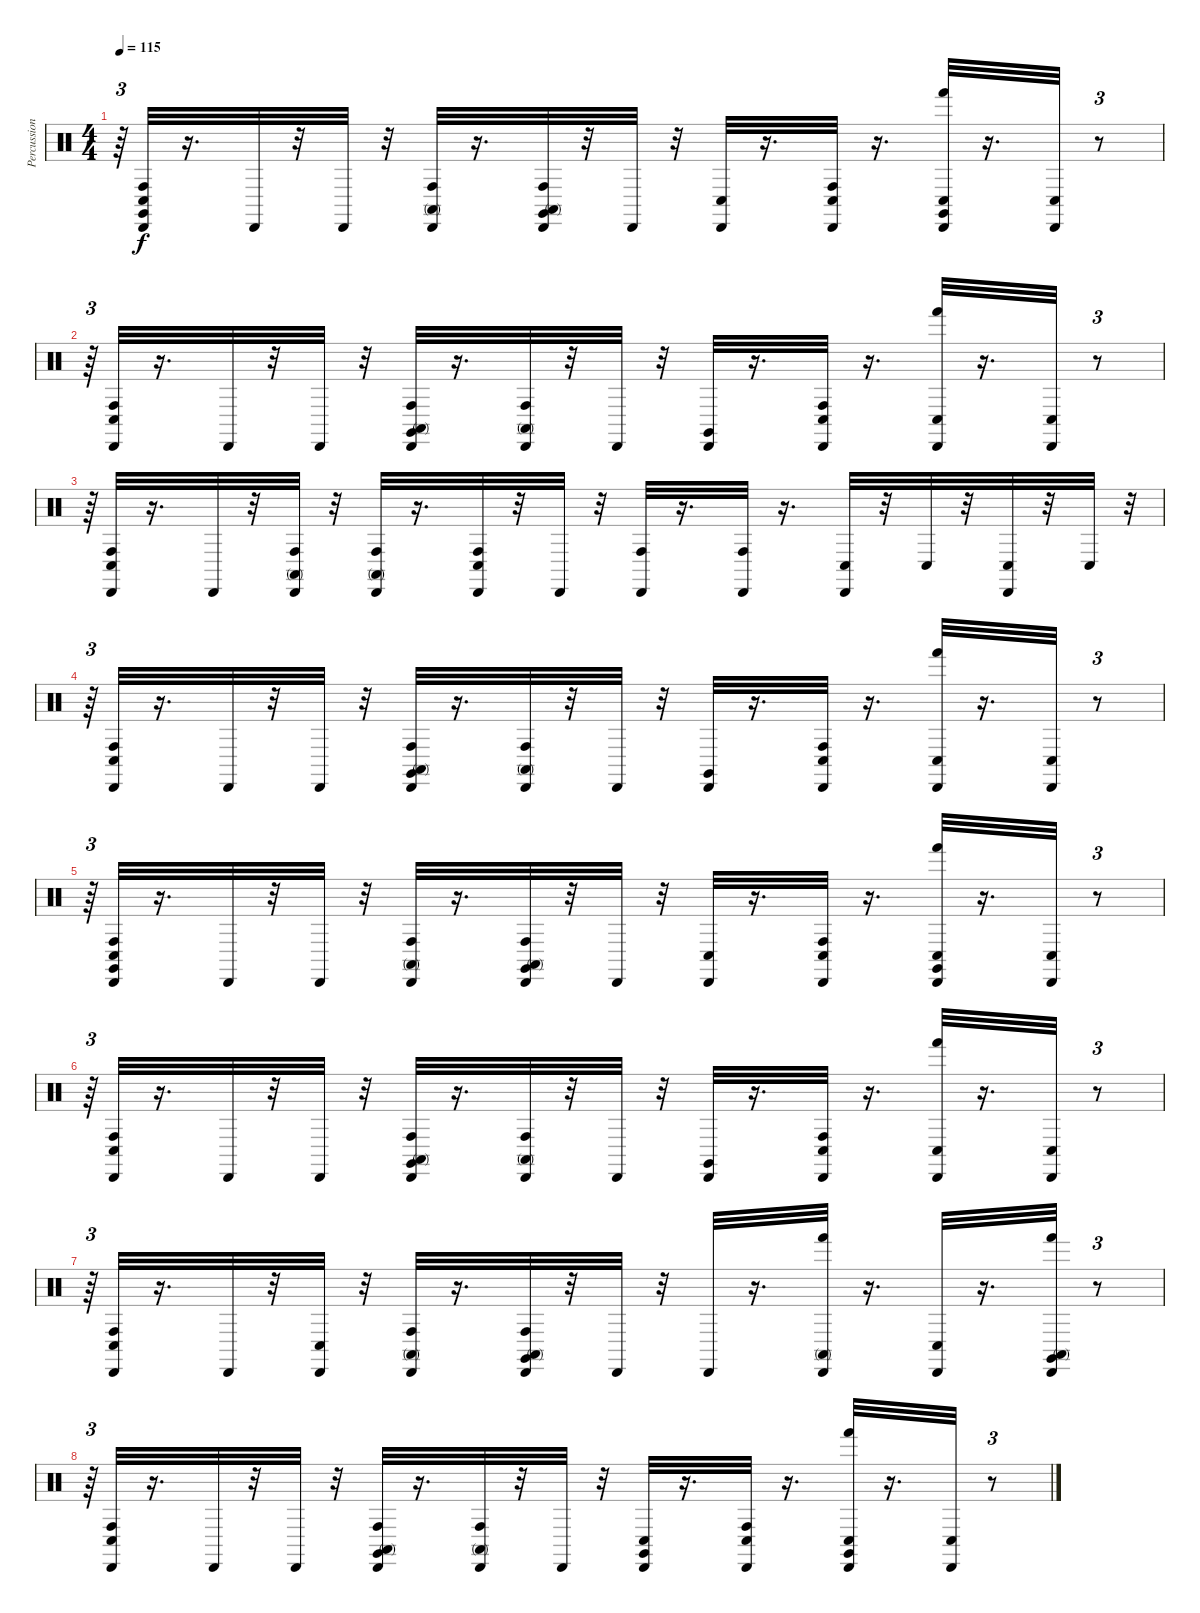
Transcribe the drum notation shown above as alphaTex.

\track ("Percussion" "Percussion") {instrument percussion}
\staff {score}
\articulation defaults
\ts (4 4)
\tempo 115
\clef neutral
\ks c
r.64{tu (3 2) dy f} ("Conga low (hit)" "Claves (hit)" "Cabasa (hit)" "Conga high (hit)").32 r.16{d} "Cabasa (hit)".32 r.32 "Cabasa (hit)".32 r.32 ("Conga high (mute)" "Cabasa (hit)" "Conga high (hit)").32 r.16{d} ("Conga high (hit)" "Claves (hit)" "Cabasa (hit)" "Conga high (mute)").32 r.32 "Cabasa (hit)".32 r.32 ("Conga low (hit)" "Cabasa (hit)").32 r.16{d} ("Cabasa (hit)" "Conga low (hit)" "Conga high (hit)").32 r.16{d} ("Conga low (hit)" "Hand (hit)" "Claves (hit)" "Cabasa (hit)").32 r.16{d} ("Cabasa (hit)" "Conga low (hit)").32 r.8{tu (3 2)} |
r.64{tu (3 2)} ("Conga low (hit)" "Conga high (hit)" "Cabasa (hit)").32 r.16{d} "Cabasa (hit)".32 r.32 "Cabasa (hit)".32 r.32 ("Cabasa (hit)" "Conga high (hit)" "Conga high (mute)" "Claves (hit)").32 r.16{d} ("Conga high (hit)" "Cabasa (hit)" "Conga high (mute)").32 r.32 "Cabasa (hit)".32 r.32 ("Claves (hit)" "Cabasa (hit)").32 r.16{d} ("Conga high (hit)" "Cabasa (hit)" "Conga low (hit)").32 r.16{d} ("Cabasa (hit)" "Hand (hit)" "Conga low (hit)").32 r.16{d} ("Conga low (hit)" "Cabasa (hit)").32 r.8{tu (3 2)} |
r.64{tu (3 2)} ("Conga high (hit)" "Conga low (hit)" "Cabasa (hit)").32 r.16{d} "Cabasa (hit)".32 r.32 ("Conga high (hit)" "Conga high (mute)" "Cabasa (hit)").32 r.32 ("Cabasa (hit)" "Conga high (mute)" "Conga high (hit)").32 r.16{d} ("Conga high (hit)" "Conga low (hit)" "Cabasa (hit)").32 r.32 "Cabasa (hit)".32 r.32 ("Conga high (hit)" "Cabasa (hit)").32 r.16{d} ("Cabasa (hit)" "Conga high (hit)").32 r.16{d} ("Cabasa (hit)" "Conga low (hit)").32 r.32 "Conga low (hit)".32 r.32 ("Cabasa (hit)" "Conga low (hit)").32 r.32 "Conga low (hit)".32 r.32{tu (3 2)} |
r.64{tu (3 2)} ("Conga high (hit)" "Conga low (hit)" "Cabasa (hit)").32 r.16{d} "Cabasa (hit)".32 r.32 "Cabasa (hit)".32 r.32 ("Claves (hit)" "Conga high (mute)" "Conga high (hit)" "Cabasa (hit)").32 r.16{d} ("Cabasa (hit)" "Conga high (hit)" "Conga high (mute)").32 r.32 "Cabasa (hit)".32 r.32 ("Cabasa (hit)" "Claves (hit)").32 r.16{d} ("Conga high (hit)" "Conga low (hit)" "Cabasa (hit)").32 r.16{d} ("Conga low (hit)" "Hand (hit)" "Cabasa (hit)").32 r.16{d} ("Cabasa (hit)" "Conga low (hit)").32 r.8{tu (3 2)} |
r.64{tu (3 2)} ("Claves (hit)" "Conga high (hit)" "Conga low (hit)" "Cabasa (hit)").32 r.16{d} "Cabasa (hit)".32 r.32 "Cabasa (hit)".32 r.32 ("Conga high (hit)" "Cabasa (hit)" "Conga high (mute)").32 r.16{d} ("Claves (hit)" "Conga high (mute)" "Conga high (hit)" "Cabasa (hit)").32 r.32 "Cabasa (hit)".32 r.32 ("Cabasa (hit)" "Conga low (hit)").32 r.16{d} ("Conga low (hit)" "Conga high (hit)" "Cabasa (hit)").32 r.16{d} ("Conga low (hit)" "Claves (hit)" "Cabasa (hit)" "Hand (hit)").32 r.16{d} ("Conga low (hit)" "Cabasa (hit)").32 r.8{tu (3 2)} |
r.64{tu (3 2)} ("Conga high (hit)" "Cabasa (hit)" "Conga low (hit)").32 r.16{d} "Cabasa (hit)".32 r.32 "Cabasa (hit)".32 r.32 ("Cabasa (hit)" "Claves (hit)" "Conga high (hit)" "Conga high (mute)").32 r.16{d} ("Conga high (mute)" "Cabasa (hit)" "Conga high (hit)").32 r.32 "Cabasa (hit)".32 r.32 ("Claves (hit)" "Cabasa (hit)").32 r.16{d} ("Conga high (hit)" "Conga low (hit)" "Cabasa (hit)").32 r.16{d} ("Cabasa (hit)" "Conga low (hit)" "Hand (hit)").32 r.16{d} ("Conga low (hit)" "Cabasa (hit)").32 r.8{tu (3 2)} |
r.64{tu (3 2)} ("Conga high (hit)" "Cabasa (hit)" "Conga low (hit)").32 r.16{d} "Cabasa (hit)".32 r.32 ("Cabasa (hit)" "Conga low (hit)").32 r.32 ("Cabasa (hit)" "Conga high (hit)" "Conga high (mute)").32 r.16{d} ("Conga high (mute)" "Claves (hit)" "Conga high (hit)" "Cabasa (hit)").32 r.32 "Cabasa (hit)".32 r.32 "Cabasa (hit)".32 r.16{d} ("Cabasa (hit)" "Conga high (mute)" "Hand (hit)").32 r.16{d} ("Cabasa (hit)" "Conga low (hit)").32 r.16{d} ("Conga high (mute)" "Hand (hit)" "Claves (hit)" "Cabasa (hit)").32 r.8{tu (3 2)} |
r.64{tu (3 2)} ("Conga low (hit)" "Conga high (hit)" "Cabasa (hit)").32 r.16{d} "Cabasa (hit)".32 r.32 "Cabasa (hit)".32 r.32 ("Cabasa (hit)" "Claves (hit)" "Conga high (mute)" "Conga high (hit)").32 r.16{d} ("Cabasa (hit)" "Conga high (mute)" "Conga high (hit)").32 r.32 "Cabasa (hit)".32 r.32 ("Claves (hit)" "Conga low (hit)" "Cabasa (hit)").32 r.16{d} ("Conga low (hit)" "Conga high (hit)" "Cabasa (hit)").32 r.16{d} ("Cabasa (hit)" "Claves (hit)" "Conga low (hit)" "Hand (hit)").32 r.16{d} ("Conga low (hit)" "Cabasa (hit)").32 r.8{tu (3 2)}
